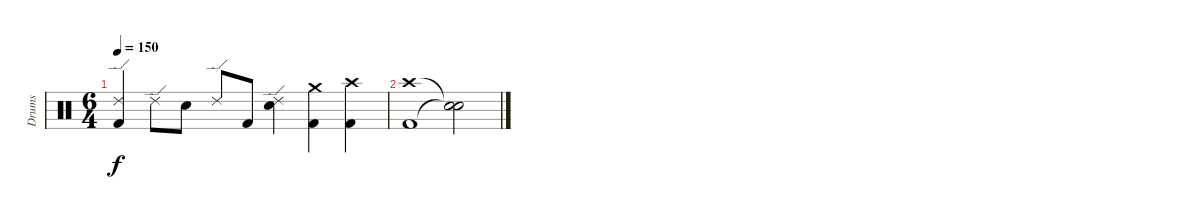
\track ("Drums" "Drums") {instrument percussion}
\staff {score}
\articulation defaults
\ts (6 4)
\tempo 150
\clef neutral
\ks c
("Ride (edge) 2" "Kick (hit) 2").4{dy f} "Ride (edge) 2".8 "Electric Snare (hit)".8 "Ride (edge) 2".8 "Kick (hit) 2".8 ("Ride (edge) 2" "Electric Snare (hit)").4 ("Crash medium (hit)" "Kick (hit) 2").4 ("Crash high (hit)" "Kick (hit) 2").4 |
("Crash high (hit)" "Kick (hit) 2").1 ("Snare (hit)"{t} "Snare (hit)"{t}).2
